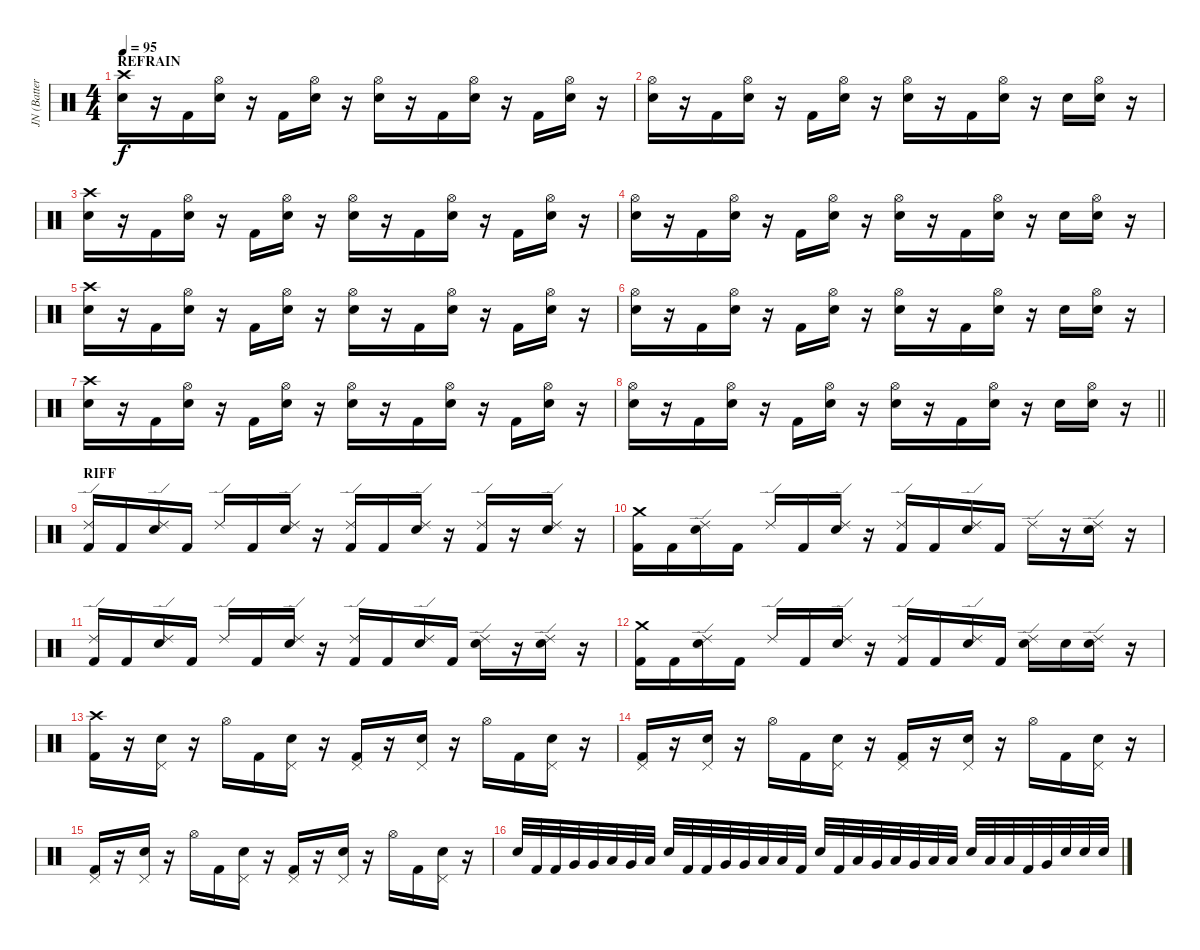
\track ("JN (Batterie)" "JN (Batter") {instrument percussion}
\staff {score}
\articulation defaults
\ts (4 4)
\section ("" "REFRAIN")
\tempo 95
\clef neutral
\ks c
("Crash high (hit)" "Electric Snare (hit)").16{dy f} r.16 "Kick (hit) 2".16 ("Hi-Hat (open)" "Electric Snare (hit)").16 r.16 "Kick (hit) 2".16 ("Hi-Hat (open)" "Electric Snare (hit)").16 r.16 ("Hi-Hat (open)" "Electric Snare (hit)").16 r.16 "Kick (hit) 2".16 ("Hi-Hat (open)" "Electric Snare (hit)").16 r.16 "Kick (hit) 2".16 ("Hi-Hat (open)" "Electric Snare (hit)").16 r.16 |
("Hi-Hat (open)" "Electric Snare (hit)").16 r.16 "Kick (hit) 2".16 ("Hi-Hat (open)" "Electric Snare (hit)").16 r.16 "Kick (hit) 2".16 ("Hi-Hat (open)" "Electric Snare (hit)").16 r.16 ("Hi-Hat (open)" "Electric Snare (hit)").16 r.16 "Kick (hit) 2".16 ("Hi-Hat (open)" "Electric Snare (hit)").16 r.16 "Electric Snare (hit)".16 ("Hi-Hat (open)" "Electric Snare (hit)").16 r.16 |
("Crash high (hit)" "Electric Snare (hit)").16 r.16 "Kick (hit) 2".16 ("Hi-Hat (open)" "Electric Snare (hit)").16 r.16 "Kick (hit) 2".16 ("Hi-Hat (open)" "Electric Snare (hit)").16 r.16 ("Hi-Hat (open)" "Electric Snare (hit)").16 r.16 "Kick (hit) 2".16 ("Hi-Hat (open)" "Electric Snare (hit)").16 r.16 "Kick (hit) 2".16 ("Hi-Hat (open)" "Electric Snare (hit)").16 r.16 |
("Hi-Hat (open)" "Electric Snare (hit)").16 r.16 "Kick (hit) 2".16 ("Hi-Hat (open)" "Electric Snare (hit)").16 r.16 "Kick (hit) 2".16 ("Hi-Hat (open)" "Electric Snare (hit)").16 r.16 ("Hi-Hat (open)" "Electric Snare (hit)").16 r.16 "Kick (hit) 2".16 ("Hi-Hat (open)" "Electric Snare (hit)").16 r.16 "Electric Snare (hit)".16 ("Hi-Hat (open)" "Electric Snare (hit)").16 r.16 |
("Crash high (hit)" "Electric Snare (hit)").16 r.16 "Kick (hit) 2".16 ("Hi-Hat (open)" "Electric Snare (hit)").16 r.16 "Kick (hit) 2".16 ("Hi-Hat (open)" "Electric Snare (hit)").16 r.16 ("Hi-Hat (open)" "Electric Snare (hit)").16 r.16 "Kick (hit) 2".16 ("Hi-Hat (open)" "Electric Snare (hit)").16 r.16 "Kick (hit) 2".16 ("Hi-Hat (open)" "Electric Snare (hit)").16 r.16 |
("Hi-Hat (open)" "Electric Snare (hit)").16 r.16 "Kick (hit) 2".16 ("Hi-Hat (open)" "Electric Snare (hit)").16 r.16 "Kick (hit) 2".16 ("Hi-Hat (open)" "Electric Snare (hit)").16 r.16 ("Hi-Hat (open)" "Electric Snare (hit)").16 r.16 "Kick (hit) 2".16 ("Hi-Hat (open)" "Electric Snare (hit)").16 r.16 "Electric Snare (hit)".16 ("Hi-Hat (open)" "Electric Snare (hit)").16 r.16 |
("Crash high (hit)" "Electric Snare (hit)").16 r.16 "Kick (hit) 2".16 ("Hi-Hat (open)" "Electric Snare (hit)").16 r.16 "Kick (hit) 2".16 ("Hi-Hat (open)" "Electric Snare (hit)").16 r.16 ("Hi-Hat (open)" "Electric Snare (hit)").16 r.16 "Kick (hit) 2".16 ("Hi-Hat (open)" "Electric Snare (hit)").16 r.16 "Kick (hit) 2".16 ("Hi-Hat (open)" "Electric Snare (hit)").16 r.16 |
\barLineRight lightlight
("Hi-Hat (open)" "Electric Snare (hit)").16 r.16 "Kick (hit) 2".16 ("Hi-Hat (open)" "Electric Snare (hit)").16 r.16 "Kick (hit) 2".16 ("Hi-Hat (open)" "Electric Snare (hit)").16 r.16 ("Hi-Hat (open)" "Electric Snare (hit)").16 r.16 "Kick (hit) 2".16 ("Hi-Hat (open)" "Electric Snare (hit)").16 r.16 "Electric Snare (hit)".16 ("Hi-Hat (open)" "Electric Snare (hit)").16 r.16 |
\section ("" "RIFF")
("Ride (edge) 2" "Kick (hit) 2").16 "Kick (hit) 2".16 ("Ride (edge) 2" "Electric Snare (hit)").16 "Kick (hit) 2".16 "Ride (edge) 2".16 "Kick (hit) 2".16 ("Ride (edge) 2" "Electric Snare (hit)").16 r.16 ("Ride (edge) 2" "Kick (hit) 2").16 "Kick (hit) 2".16 ("Ride (edge) 2" "Electric Snare (hit)").16 r.16 ("Ride (edge) 2" "Kick (hit) 2").16 r.16 ("Ride (edge) 2" "Electric Snare (hit)").16 r.16 |
("Crash medium (hit)" "Kick (hit) 2").16 "Kick (hit) 2".16 ("Ride (edge) 2" "Electric Snare (hit)").16 "Kick (hit) 2".16 "Ride (edge) 2".16 "Kick (hit) 2".16 ("Ride (edge) 2" "Electric Snare (hit)").16 r.16 ("Ride (edge) 2" "Kick (hit) 2").16 "Kick (hit) 2".16 ("Ride (edge) 2" "Electric Snare (hit)").16 "Kick (hit) 2".16 "Ride (edge) 2".16 r.16 ("Ride (edge) 2" "Electric Snare (hit)").16 r.16 |
("Ride (edge) 2" "Kick (hit) 2").16 "Kick (hit) 2".16 ("Ride (edge) 2" "Electric Snare (hit)").16 "Kick (hit) 2".16 "Ride (edge) 2".16 "Kick (hit) 2".16 ("Ride (edge) 2" "Electric Snare (hit)").16 r.16 ("Ride (edge) 2" "Kick (hit) 2").16 "Kick (hit) 2".16 ("Ride (edge) 2" "Electric Snare (hit)").16 "Kick (hit) 2".16 ("Ride (edge) 2" "Electric Snare (hit)").16 r.16 ("Ride (edge) 2" "Electric Snare (hit)").16 r.16 |
("Crash medium (hit)" "Kick (hit) 2").16 "Kick (hit) 2".16 ("Ride (edge) 2" "Electric Snare (hit)").16 "Kick (hit) 2".16 "Ride (edge) 2".16 "Kick (hit) 2".16 ("Ride (edge) 2" "Electric Snare (hit)").16 r.16 ("Ride (edge) 2" "Kick (hit) 2").16 "Kick (hit) 2".16 ("Ride (edge) 2" "Electric Snare (hit)").16 "Kick (hit) 2".16 ("Ride (edge) 2" "Electric Snare (hit)").16 "Electric Snare (hit)".16 ("Ride (edge) 2" "Electric Snare (hit)").16 r.16 |
("Crash high (hit)" "Kick (hit) 2").16 r.16 ("Pedal Hi-Hat (hit)" "Electric Snare (hit)").16 r.16 "Hi-Hat (open)".16 "Kick (hit) 2".16 ("Pedal Hi-Hat (hit)" "Electric Snare (hit)").16 r.16 ("Pedal Hi-Hat (hit)" "Kick (hit) 2").16 r.16 ("Pedal Hi-Hat (hit)" "Electric Snare (hit)").16 r.16 "Hi-Hat (open)".16 "Kick (hit) 2".16 ("Pedal Hi-Hat (hit)" "Electric Snare (hit)").16 r.16 |
("Pedal Hi-Hat (hit)" "Kick (hit) 2").16 r.16 ("Pedal Hi-Hat (hit)" "Electric Snare (hit)").16 r.16 "Hi-Hat (open)".16 "Kick (hit) 2".16 ("Pedal Hi-Hat (hit)" "Electric Snare (hit)").16 r.16 ("Pedal Hi-Hat (hit)" "Kick (hit) 2").16 r.16 ("Pedal Hi-Hat (hit)" "Electric Snare (hit)").16 r.16 "Hi-Hat (open)".16 "Kick (hit) 2".16 ("Pedal Hi-Hat (hit)" "Electric Snare (hit)").16 r.16 |
("Pedal Hi-Hat (hit)" "Kick (hit) 2").16 r.16 ("Pedal Hi-Hat (hit)" "Electric Snare (hit)").16 r.16 "Hi-Hat (open)".16 "Kick (hit) 2".16 ("Pedal Hi-Hat (hit)" "Electric Snare (hit)").16 r.16 ("Pedal Hi-Hat (hit)" "Kick (hit) 2").16 r.16 ("Pedal Hi-Hat (hit)" "Electric Snare (hit)").16 r.16 "Hi-Hat (open)".16 "Kick (hit) 2".16 ("Pedal Hi-Hat (hit)" "Electric Snare (hit)").16 r.16 |
"Electric Snare (hit)".32 "Kick (hit) 2".32 "Kick (hit) 2".32 "Very Low Tom (hit)".32 "Very Low Tom (hit)".32 "Low Tom (hit)".32 "Very Low Tom (hit)".32 "Low Floor Tom (hit)".32 "Electric Snare (hit)".32 "Kick (hit) 2".32 "Kick (hit) 2".32 "Very Low Tom (hit)".32 "Very Low Tom (hit)".32 "Low Tom (hit)".32 "Low Floor Tom (hit)".32 "Kick (hit) 2".32 "Electric Snare (hit)".32 "Kick (hit) 2".32 "Low Tom (hit)".32 "Very Low Tom (hit)".32 "Low Tom (hit)".32 "Very Low Tom (hit)".32 "Low Floor Tom (hit)".32 "Low Floor Tom (hit)".32 "Electric Snare (hit)".32 "Low Tom (hit)".32 "Low Tom (hit)".32 "Kick (hit) 2".32 "Very Low Tom (hit)".32 "Electric Snare (hit)".32 "Electric Snare (hit)".32 "Electric Snare (hit)".32
